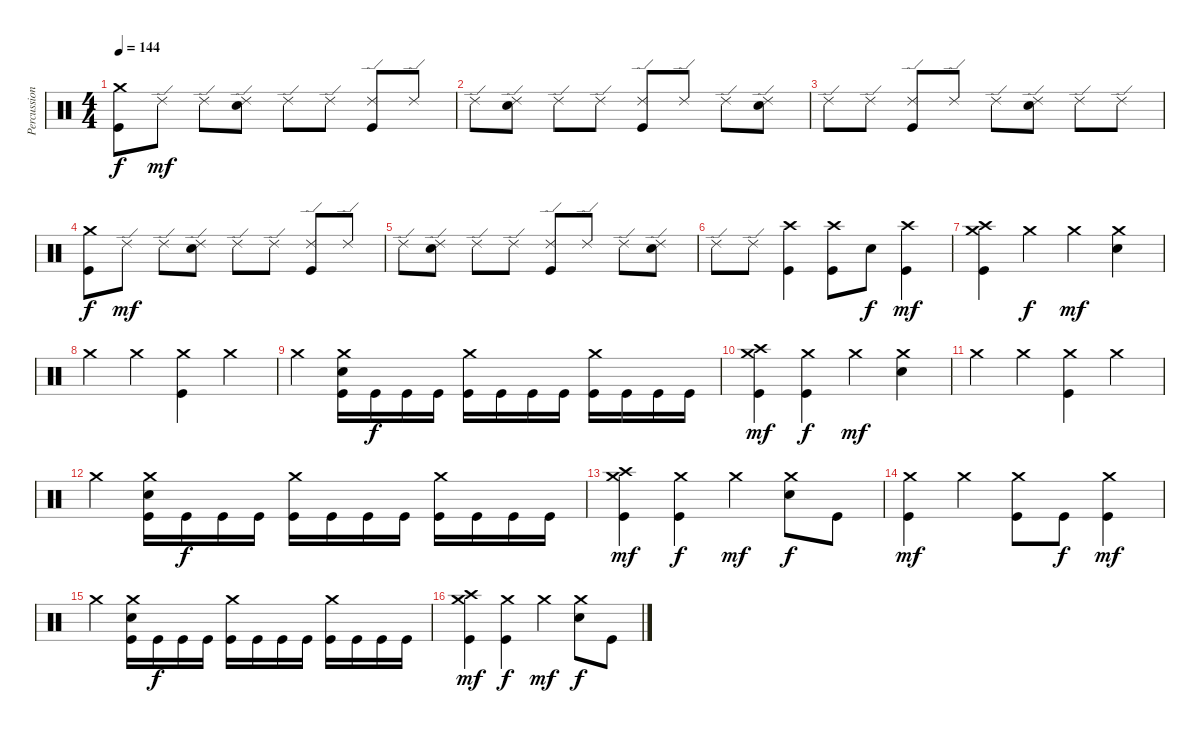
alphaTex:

\track ("Percussion" "Percussion") {instrument percussion}
\staff {score}
\articulation defaults
\ts (4 4)
\tempo 144
\clef neutral
\ks c
("Crash medium (hit)" "Kick (hit)").8{dy f} "Ride (edge) 2".8{dy mf} "Ride (edge) 2".8 ("Ride (edge) 2" "Electric Snare (hit)").8 "Ride (edge) 2".8 "Ride (edge) 2".8 ("Ride (edge) 2" "Kick (hit)").8 "Ride (edge) 2".8 |
"Ride (edge) 2".8 ("Ride (edge) 2" "Electric Snare (hit)").8 "Ride (edge) 2".8 "Ride (edge) 2".8 ("Ride (edge) 2" "Kick (hit)").8 "Ride (edge) 2".8 "Ride (edge) 2".8 ("Ride (edge) 2" "Electric Snare (hit)").8 |
"Ride (edge) 2".8 "Ride (edge) 2".8 ("Ride (edge) 2" "Kick (hit)").8 "Ride (edge) 2".8 "Ride (edge) 2".8 ("Ride (edge) 2" "Electric Snare (hit)").8 "Ride (edge) 2".8 "Ride (edge) 2".8 |
("Crash medium (hit)" "Kick (hit)").8{dy f} "Ride (edge) 2".8{dy mf} "Ride (edge) 2".8 ("Ride (edge) 2" "Electric Snare (hit)").8 "Ride (edge) 2".8 "Ride (edge) 2".8 ("Ride (edge) 2" "Kick (hit)").8 "Ride (edge) 2".8 |
"Ride (edge) 2".8 ("Ride (edge) 2" "Electric Snare (hit)").8 "Ride (edge) 2".8 "Ride (edge) 2".8 ("Ride (edge) 2" "Kick (hit)").8 "Ride (edge) 2".8 "Ride (edge) 2".8 ("Ride (edge) 2" "Electric Snare (hit)").8 |
"Ride (edge) 2".8 "Ride (edge) 2".8 ("Crash high (hit)" "Kick (hit)").4 ("Crash high (hit)" "Kick (hit)").8 "Electric Snare (hit)".8{dy f} ("Crash high (hit)" "Kick (hit)").4{dy mf} |
("Crash medium (hit)" "Crash high (hit)" "Kick (hit)").4 "Crash medium (hit)".4{dy f} "Crash medium (hit)".4{dy mf} ("Crash medium (hit)" "Electric Snare (hit)").4 |
"Crash medium (hit)".4 "Crash medium (hit)".4 ("Crash medium (hit)" "Kick (hit)").4 "Crash medium (hit)".4 |
"Crash medium (hit)".4 ("Crash medium (hit)" "Electric Snare (hit)" "Kick (hit)").16 "Kick (hit)".16{dy f} "Kick (hit)".16 "Kick (hit)".16 ("Crash medium (hit)" "Kick (hit)").16 "Kick (hit)".16 "Kick (hit)".16 "Kick (hit)".16 ("Crash medium (hit)" "Kick (hit)").16 "Kick (hit)".16 "Kick (hit)".16 "Kick (hit)".16 |
("Crash medium (hit)" "Crash high (hit)" "Kick (hit)").4{dy mf} ("Crash medium (hit)" "Kick (hit)").4{dy f} "Crash medium (hit)".4{dy mf} ("Crash medium (hit)" "Electric Snare (hit)").4 |
"Crash medium (hit)".4 "Crash medium (hit)".4 ("Crash medium (hit)" "Kick (hit)").4 "Crash medium (hit)".4 |
"Crash medium (hit)".4 ("Crash medium (hit)" "Electric Snare (hit)" "Kick (hit)").16 "Kick (hit)".16{dy f} "Kick (hit)".16 "Kick (hit)".16 ("Crash medium (hit)" "Kick (hit)").16 "Kick (hit)".16 "Kick (hit)".16 "Kick (hit)".16 ("Crash medium (hit)" "Kick (hit)").16 "Kick (hit)".16 "Kick (hit)".16 "Kick (hit)".16 |
("Crash medium (hit)" "Crash high (hit)" "Kick (hit)").4{dy mf} ("Crash medium (hit)" "Kick (hit)").4{dy f} "Crash medium (hit)".4{dy mf} ("Crash medium (hit)" "Electric Snare (hit)").8{dy f} "Kick (hit)".8 |
("Crash medium (hit)" "Kick (hit)").4{dy mf} "Crash medium (hit)".4 ("Crash medium (hit)" "Kick (hit)").8 "Kick (hit)".8{dy f} ("Crash medium (hit)" "Kick (hit)").4{dy mf} |
"Crash medium (hit)".4 ("Crash medium (hit)" "Electric Snare (hit)" "Kick (hit)").16 "Kick (hit)".16{dy f} "Kick (hit)".16 "Kick (hit)".16 ("Crash medium (hit)" "Kick (hit)").16 "Kick (hit)".16 "Kick (hit)".16 "Kick (hit)".16 ("Crash medium (hit)" "Kick (hit)").16 "Kick (hit)".16 "Kick (hit)".16 "Kick (hit)".16 |
("Crash medium (hit)" "Crash high (hit)" "Kick (hit)").4{dy mf} ("Crash medium (hit)" "Kick (hit)").4{dy f} "Crash medium (hit)".4{dy mf} ("Crash medium (hit)" "Electric Snare (hit)").8{dy f} "Kick (hit)".8
